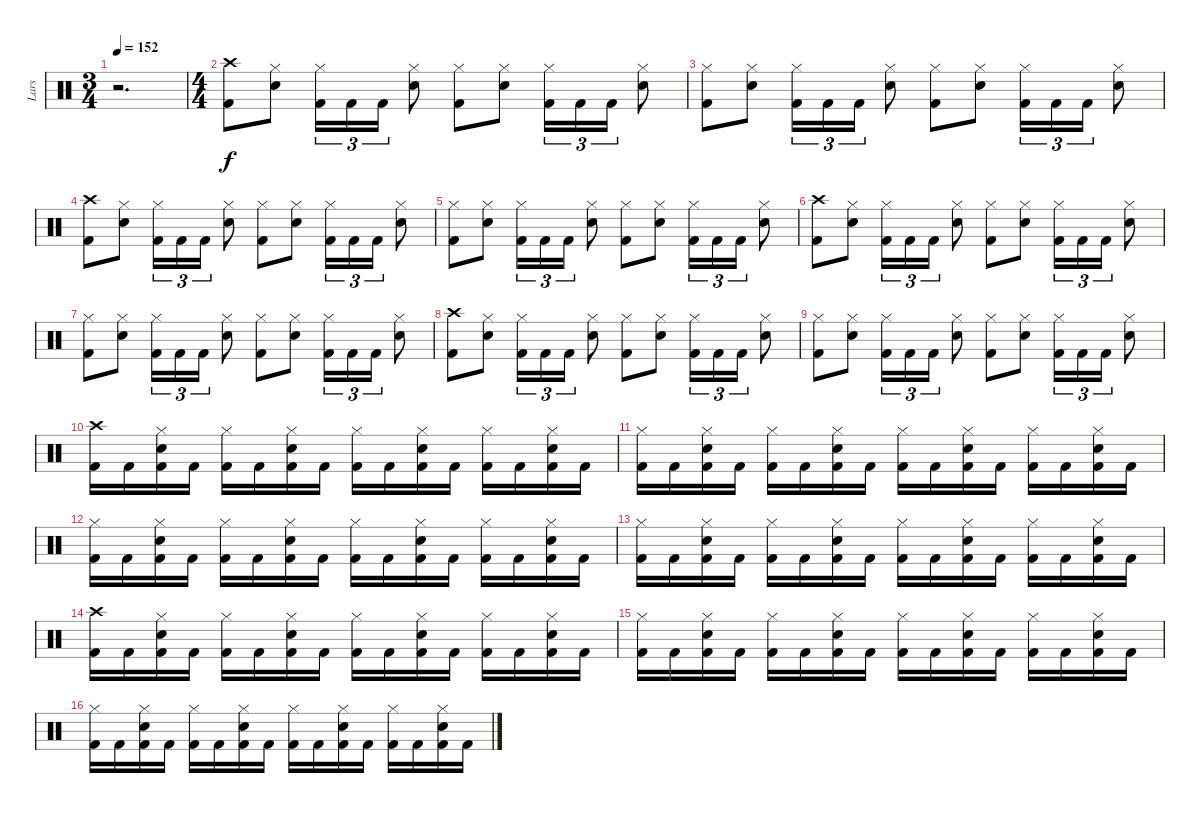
\track ("Lars" "Lars") {instrument percussion}
\staff {score}
\articulation defaults
\ts (3 4)
\tempo 152
\clef neutral
\ks c
r.2{d dy f} |
\ts (4 4)
("Crash high (hit)" "Kick (hit) 2").8 ("Hi-Hat (closed)" "Snare (hit) 2").8 ("Hi-Hat (closed)" "Kick (hit) 2").16{tu (3 2)} "Kick (hit) 2".16{tu (3 2)} "Kick (hit) 2".16{tu (3 2)} ("Hi-Hat (closed)" "Snare (hit) 2").8 ("Hi-Hat (closed)" "Kick (hit) 2").8 ("Hi-Hat (closed)" "Snare (hit) 2").8 ("Hi-Hat (closed)" "Kick (hit) 2").16{tu (3 2)} "Kick (hit) 2".16{tu (3 2)} "Kick (hit) 2".16{tu (3 2)} ("Hi-Hat (closed)" "Snare (hit) 2").8 |
("Hi-Hat (closed)" "Kick (hit) 2").8 ("Hi-Hat (closed)" "Snare (hit) 2").8 ("Hi-Hat (closed)" "Kick (hit) 2").16{tu (3 2)} "Kick (hit) 2".16{tu (3 2)} "Kick (hit) 2".16{tu (3 2)} ("Hi-Hat (closed)" "Snare (hit) 2").8 ("Hi-Hat (closed)" "Kick (hit) 2").8 ("Hi-Hat (closed)" "Snare (hit) 2").8 ("Hi-Hat (closed)" "Kick (hit) 2").16{tu (3 2)} "Kick (hit) 2".16{tu (3 2)} "Kick (hit) 2".16{tu (3 2)} ("Hi-Hat (closed)" "Snare (hit) 2").8 |
("Crash high (hit)" "Kick (hit) 2").8 ("Hi-Hat (closed)" "Snare (hit) 2").8 ("Hi-Hat (closed)" "Kick (hit) 2").16{tu (3 2)} "Kick (hit) 2".16{tu (3 2)} "Kick (hit) 2".16{tu (3 2)} ("Hi-Hat (closed)" "Snare (hit) 2").8 ("Hi-Hat (closed)" "Kick (hit) 2").8 ("Hi-Hat (closed)" "Snare (hit) 2").8 ("Hi-Hat (closed)" "Kick (hit) 2").16{tu (3 2)} "Kick (hit) 2".16{tu (3 2)} "Kick (hit) 2".16{tu (3 2)} ("Hi-Hat (closed)" "Snare (hit) 2").8 |
("Hi-Hat (closed)" "Kick (hit) 2").8 ("Hi-Hat (closed)" "Snare (hit) 2").8 ("Hi-Hat (closed)" "Kick (hit) 2").16{tu (3 2)} "Kick (hit) 2".16{tu (3 2)} "Kick (hit) 2".16{tu (3 2)} ("Hi-Hat (closed)" "Snare (hit) 2").8 ("Hi-Hat (closed)" "Kick (hit) 2").8 ("Hi-Hat (closed)" "Snare (hit) 2").8 ("Hi-Hat (closed)" "Kick (hit) 2").16{tu (3 2)} "Kick (hit) 2".16{tu (3 2)} "Kick (hit) 2".16{tu (3 2)} ("Hi-Hat (closed)" "Snare (hit) 2").8 |
("Crash high (hit)" "Kick (hit) 2").8 ("Hi-Hat (closed)" "Snare (hit) 2").8 ("Hi-Hat (closed)" "Kick (hit) 2").16{tu (3 2)} "Kick (hit) 2".16{tu (3 2)} "Kick (hit) 2".16{tu (3 2)} ("Hi-Hat (closed)" "Snare (hit) 2").8 ("Hi-Hat (closed)" "Kick (hit) 2").8 ("Hi-Hat (closed)" "Snare (hit) 2").8 ("Hi-Hat (closed)" "Kick (hit) 2").16{tu (3 2)} "Kick (hit) 2".16{tu (3 2)} "Kick (hit) 2".16{tu (3 2)} ("Hi-Hat (closed)" "Snare (hit) 2").8 |
("Hi-Hat (closed)" "Kick (hit) 2").8 ("Hi-Hat (closed)" "Snare (hit) 2").8 ("Hi-Hat (closed)" "Kick (hit) 2").16{tu (3 2)} "Kick (hit) 2".16{tu (3 2)} "Kick (hit) 2".16{tu (3 2)} ("Hi-Hat (closed)" "Snare (hit) 2").8 ("Hi-Hat (closed)" "Kick (hit) 2").8 ("Hi-Hat (closed)" "Snare (hit) 2").8 ("Hi-Hat (closed)" "Kick (hit) 2").16{tu (3 2)} "Kick (hit) 2".16{tu (3 2)} "Kick (hit) 2".16{tu (3 2)} ("Hi-Hat (closed)" "Snare (hit) 2").8 |
("Crash high (hit)" "Kick (hit) 2").8 ("Hi-Hat (closed)" "Snare (hit) 2").8 ("Hi-Hat (closed)" "Kick (hit) 2").16{tu (3 2)} "Kick (hit) 2".16{tu (3 2)} "Kick (hit) 2".16{tu (3 2)} ("Hi-Hat (closed)" "Snare (hit) 2").8 ("Hi-Hat (closed)" "Kick (hit) 2").8 ("Hi-Hat (closed)" "Snare (hit) 2").8 ("Hi-Hat (closed)" "Kick (hit) 2").16{tu (3 2)} "Kick (hit) 2".16{tu (3 2)} "Kick (hit) 2".16{tu (3 2)} ("Hi-Hat (closed)" "Snare (hit) 2").8 |
("Hi-Hat (closed)" "Kick (hit) 2").8 ("Hi-Hat (closed)" "Snare (hit) 2").8 ("Hi-Hat (closed)" "Kick (hit) 2").16{tu (3 2)} "Kick (hit) 2".16{tu (3 2)} "Kick (hit) 2".16{tu (3 2)} ("Hi-Hat (closed)" "Snare (hit) 2").8 ("Hi-Hat (closed)" "Kick (hit) 2").8 ("Hi-Hat (closed)" "Snare (hit) 2").8 ("Hi-Hat (closed)" "Kick (hit) 2").16{tu (3 2)} "Kick (hit) 2".16{tu (3 2)} "Kick (hit) 2".16{tu (3 2)} ("Hi-Hat (closed)" "Snare (hit) 2").8 |
("Crash high (hit)" "Kick (hit) 2").16 "Kick (hit) 2".16 ("Hi-Hat (closed)" "Snare (hit) 2" "Kick (hit) 2").16 "Kick (hit) 2".16 ("Hi-Hat (closed)" "Kick (hit) 2").16 "Kick (hit) 2".16 ("Hi-Hat (closed)" "Snare (hit) 2" "Kick (hit) 2").16 "Kick (hit) 2".16 ("Hi-Hat (closed)" "Kick (hit) 2").16 "Kick (hit) 2".16 ("Hi-Hat (closed)" "Snare (hit) 2" "Kick (hit) 2").16 "Kick (hit) 2".16 ("Hi-Hat (closed)" "Kick (hit) 2").16 "Kick (hit) 2".16 ("Hi-Hat (closed)" "Snare (hit) 2" "Kick (hit) 2").16 "Kick (hit) 2".16 |
("Hi-Hat (closed)" "Kick (hit) 2").16 "Kick (hit) 2".16 ("Hi-Hat (closed)" "Snare (hit) 2" "Kick (hit) 2").16 "Kick (hit) 2".16 ("Hi-Hat (closed)" "Kick (hit) 2").16 "Kick (hit) 2".16 ("Hi-Hat (closed)" "Snare (hit) 2" "Kick (hit) 2").16 "Kick (hit) 2".16 ("Hi-Hat (closed)" "Kick (hit) 2").16 "Kick (hit) 2".16 ("Hi-Hat (closed)" "Snare (hit) 2" "Kick (hit) 2").16 "Kick (hit) 2".16 ("Hi-Hat (closed)" "Kick (hit) 2").16 "Kick (hit) 2".16 ("Hi-Hat (closed)" "Snare (hit) 2" "Kick (hit) 2").16 "Kick (hit) 2".16 |
("Hi-Hat (closed)" "Kick (hit) 2").16 "Kick (hit) 2".16 ("Hi-Hat (closed)" "Snare (hit) 2" "Kick (hit) 2").16 "Kick (hit) 2".16 ("Hi-Hat (closed)" "Kick (hit) 2").16 "Kick (hit) 2".16 ("Hi-Hat (closed)" "Snare (hit) 2" "Kick (hit) 2").16 "Kick (hit) 2".16 ("Hi-Hat (closed)" "Kick (hit) 2").16 "Kick (hit) 2".16 ("Hi-Hat (closed)" "Snare (hit) 2" "Kick (hit) 2").16 "Kick (hit) 2".16 ("Hi-Hat (closed)" "Kick (hit) 2").16 "Kick (hit) 2".16 ("Hi-Hat (closed)" "Snare (hit) 2" "Kick (hit) 2").16 "Kick (hit) 2".16 |
("Hi-Hat (closed)" "Kick (hit) 2").16 "Kick (hit) 2".16 ("Hi-Hat (closed)" "Snare (hit) 2" "Kick (hit) 2").16 "Kick (hit) 2".16 ("Hi-Hat (closed)" "Kick (hit) 2").16 "Kick (hit) 2".16 ("Hi-Hat (closed)" "Snare (hit) 2" "Kick (hit) 2").16 "Kick (hit) 2".16 ("Hi-Hat (closed)" "Kick (hit) 2").16 "Kick (hit) 2".16 ("Hi-Hat (closed)" "Snare (hit) 2" "Kick (hit) 2").16 "Kick (hit) 2".16 ("Hi-Hat (closed)" "Kick (hit) 2").16 "Kick (hit) 2".16 ("Hi-Hat (closed)" "Snare (hit) 2" "Kick (hit) 2").16 "Kick (hit) 2".16 |
("Crash high (hit)" "Kick (hit) 2").16 "Kick (hit) 2".16 ("Hi-Hat (closed)" "Snare (hit) 2" "Kick (hit) 2").16 "Kick (hit) 2".16 ("Hi-Hat (closed)" "Kick (hit) 2").16 "Kick (hit) 2".16 ("Hi-Hat (closed)" "Snare (hit) 2" "Kick (hit) 2").16 "Kick (hit) 2".16 ("Hi-Hat (closed)" "Kick (hit) 2").16 "Kick (hit) 2".16 ("Hi-Hat (closed)" "Snare (hit) 2" "Kick (hit) 2").16 "Kick (hit) 2".16 ("Hi-Hat (closed)" "Kick (hit) 2").16 "Kick (hit) 2".16 ("Hi-Hat (closed)" "Snare (hit) 2" "Kick (hit) 2").16 "Kick (hit) 2".16 |
("Hi-Hat (closed)" "Kick (hit) 2").16 "Kick (hit) 2".16 ("Hi-Hat (closed)" "Snare (hit) 2" "Kick (hit) 2").16 "Kick (hit) 2".16 ("Hi-Hat (closed)" "Kick (hit) 2").16 "Kick (hit) 2".16 ("Hi-Hat (closed)" "Snare (hit) 2" "Kick (hit) 2").16 "Kick (hit) 2".16 ("Hi-Hat (closed)" "Kick (hit) 2").16 "Kick (hit) 2".16 ("Hi-Hat (closed)" "Snare (hit) 2" "Kick (hit) 2").16 "Kick (hit) 2".16 ("Hi-Hat (closed)" "Kick (hit) 2").16 "Kick (hit) 2".16 ("Hi-Hat (closed)" "Snare (hit) 2" "Kick (hit) 2").16 "Kick (hit) 2".16 |
("Hi-Hat (closed)" "Kick (hit) 2").16 "Kick (hit) 2".16 ("Hi-Hat (closed)" "Snare (hit) 2" "Kick (hit) 2").16 "Kick (hit) 2".16 ("Hi-Hat (closed)" "Kick (hit) 2").16 "Kick (hit) 2".16 ("Hi-Hat (closed)" "Snare (hit) 2" "Kick (hit) 2").16 "Kick (hit) 2".16 ("Hi-Hat (closed)" "Kick (hit) 2").16 "Kick (hit) 2".16 ("Hi-Hat (closed)" "Snare (hit) 2" "Kick (hit) 2").16 "Kick (hit) 2".16 ("Hi-Hat (closed)" "Kick (hit) 2").16 "Kick (hit) 2".16 ("Hi-Hat (closed)" "Snare (hit) 2" "Kick (hit) 2").16 "Kick (hit) 2".16
